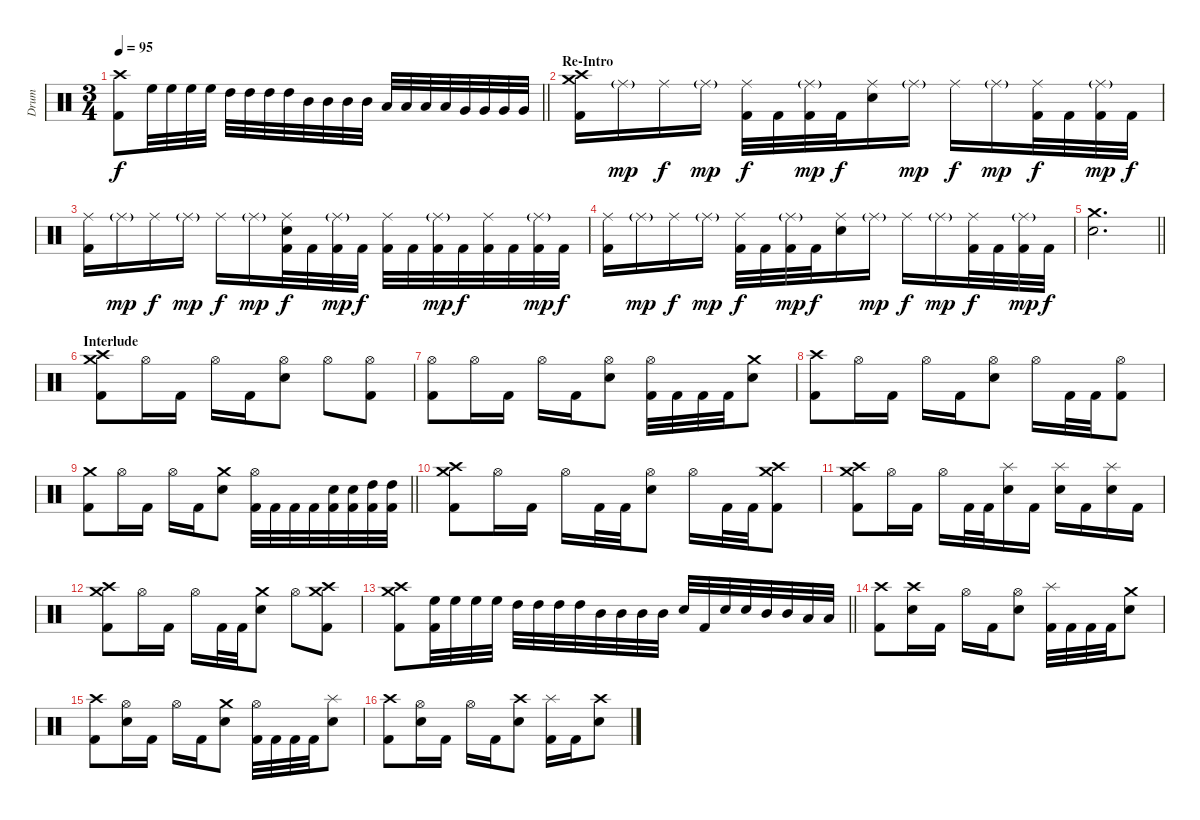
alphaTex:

\track ("Drum" "Drum") {instrument percussion}
\staff {score}
\articulation defaults
\ts (3 4)
\tempo 95
\clef neutral
\barLineRight lightlight
\ks c
("Crash high (hit)" "Kick (hit) 2").8{dy f} "High Floor Tom (hit)".32 "High Floor Tom (hit)".32 "High Floor Tom (hit)".32 "High Floor Tom (hit)".32 "High Tom (hit)".32 "High Tom (hit)".32 "High Tom (hit)".32 "High Tom (hit)".32 "Mid Tom (hit)".32 "Mid Tom (hit)".32 "Mid Tom (hit)".32 "Mid Tom (hit)".32 "Low Tom (hit)".32 "Low Tom (hit)".32 "Low Tom (hit)".32 "Low Tom (hit)".32 "Very Low Tom (hit)".32 "Very Low Tom (hit)".32 "Very Low Tom (hit)".32 "Very Low Tom (hit)".32 |
\section ("" "Re-Intro")
("Crash high (hit)" "Crash medium (hit)" "Kick (hit) 2").16 "Ride (middle)"{g}.16{dy mp} "Ride (middle)".16{dy f} "Ride (middle)"{g}.16{dy mp} ("Ride (middle)" "Kick (hit) 2").32{dy f} "Kick (hit) 2".32 ("Ride (middle)"{g} "Kick (hit) 2").32{dy mp} "Kick (hit) 2".32{dy f} ("Ride (middle)" "Electric Snare (hit)").16 "Ride (middle)"{g}.16{dy mp} "Ride (middle)".16{dy f} "Ride (middle)"{g}.16{dy mp} ("Ride (middle)" "Kick (hit) 2").32{dy f} "Kick (hit) 2".32 ("Ride (middle)"{g} "Kick (hit) 2").32{dy mp} "Kick (hit) 2".32{dy f} |
("Ride (middle)" "Kick (hit) 2").16 "Ride (middle)"{g}.16{dy mp} "Ride (middle)".16{dy f} "Ride (middle)"{g}.16{dy mp} "Ride (middle)".16{dy f} "Ride (middle)"{g}.16{dy mp} ("Ride (middle)" "Electric Snare (hit)" "Kick (hit) 2").32{dy f} "Kick (hit) 2".32 ("Ride (middle)"{g} "Kick (hit) 2").32{dy mp} "Kick (hit) 2".32{dy f} ("Ride (middle)" "Kick (hit) 2").32 "Kick (hit) 2".32 ("Ride (middle)"{g} "Kick (hit) 2").32{dy mp} "Kick (hit) 2".32{dy f} ("Ride (middle)" "Kick (hit) 2").32 "Kick (hit) 2".32 ("Ride (middle)"{g} "Kick (hit) 2").32{dy mp} "Kick (hit) 2".32{dy f} |
("Ride (middle)" "Kick (hit) 2").16 "Ride (middle)"{g}.16{dy mp} "Ride (middle)".16{dy f} "Ride (middle)"{g}.16{dy mp} ("Ride (middle)" "Kick (hit) 2").32{dy f} "Kick (hit) 2".32 ("Ride (middle)"{g} "Kick (hit) 2").32{dy mp} "Kick (hit) 2".32{dy f} ("Ride (middle)" "Electric Snare (hit)").16 "Ride (middle)"{g}.16{dy mp} "Ride (middle)".16{dy f} "Ride (middle)"{g}.16{dy mp} ("Ride (middle)" "Kick (hit) 2").32{dy f} "Kick (hit) 2".32 ("Ride (middle)"{g} "Kick (hit) 2").32{dy mp} "Kick (hit) 2".32{dy f} |
\barLineRight lightlight
("Crash medium (hit)" "Electric Snare (hit)").2{d} |
\section ("" "Interlude")
("Crash high (hit)" "Crash medium (hit)" "Kick (hit) 2").8 "Hi-Hat (open)".16 "Kick (hit) 2".16 "Hi-Hat (open)".16 "Kick (hit) 2".16 ("Hi-Hat (open)" "Electric Snare (hit)").8 "Hi-Hat (open)".8 ("Hi-Hat (open)" "Kick (hit) 2").8 |
("Hi-Hat (open)" "Kick (hit) 2").8 "Hi-Hat (open)".16 "Kick (hit) 2".16 "Hi-Hat (open)".16 "Kick (hit) 2".16 ("Hi-Hat (open)" "Electric Snare (hit)").8 ("Hi-Hat (open)" "Kick (hit) 2").32 "Kick (hit) 2".32 "Kick (hit) 2".32 "Kick (hit) 2".32 ("Crash medium (hit)" "Electric Snare (hit)").8 |
("Crash high (hit)" "Kick (hit) 2").8 "Hi-Hat (open)".16 "Kick (hit) 2".16 "Hi-Hat (open)".16 "Kick (hit) 2".16 ("Hi-Hat (open)" "Electric Snare (hit)").8 "Hi-Hat (open)".16 "Kick (hit) 2".32 "Kick (hit) 2".32 ("Hi-Hat (open)" "Kick (hit) 2").8 |
\barLineRight lightlight
("Crash medium (hit)" "Kick (hit) 2").8 "Hi-Hat (open)".16 "Kick (hit) 2".16 "Hi-Hat (open)".16 "Kick (hit) 2".16 ("Crash medium (hit)" "Electric Snare (hit)").8 ("Hi-Hat (open)" "Kick (hit) 2").32 "Kick (hit) 2".32 "Kick (hit) 2".32 "Kick (hit) 2".32 ("Electric Snare (hit)" "Kick (hit) 2").32 ("Electric Snare (hit)" "Kick (hit) 2").32 ("High Tom (hit)" "Kick (hit) 2").32 ("High Tom (hit)" "Kick (hit) 2").32 |
("Crash high (hit)" "Crash medium (hit)" "Kick (hit) 2").8 "Hi-Hat (open)".16 "Kick (hit) 2".16 "Hi-Hat (open)".16 "Kick (hit) 2".32 "Kick (hit) 2".32 ("Hi-Hat (open)" "Electric Snare (hit)").8 "Hi-Hat (open)".16 "Kick (hit) 2".32 "Kick (hit) 2".32 ("Crash high (hit)" "Crash medium (hit)" "Kick (hit) 2").8 |
("Crash high (hit)" "Crash medium (hit)" "Kick (hit) 2").8 "Hi-Hat (open)".16 "Kick (hit) 2".16 "Hi-Hat (open)".16 "Kick (hit) 2".32 "Kick (hit) 2".32 ("Splash (hit)" "Electric Snare (hit)").16 "Kick (hit) 2".16 ("Splash (hit)" "Electric Snare (hit)").16 "Kick (hit) 2".16 ("Splash (hit)" "Electric Snare (hit)").16 "Kick (hit) 2".16 |
("Crash high (hit)" "Crash medium (hit)" "Kick (hit) 2").8 "Hi-Hat (open)".16 "Kick (hit) 2".16 "Hi-Hat (open)".16 "Kick (hit) 2".32 "Kick (hit) 2".32 ("Crash medium (hit)" "Electric Snare (hit)").8 "Hi-Hat (open)".8 ("Crash high (hit)" "Crash medium (hit)" "Kick (hit) 2").8 |
\barLineRight lightlight
("Crash high (hit)" "Crash medium (hit)" "Kick (hit) 2").8 ("High Floor Tom (hit)" "Kick (hit) 2").32 "High Floor Tom (hit)".32 "High Floor Tom (hit)".32 "High Floor Tom (hit)".32 "High Tom (hit)".32 "High Tom (hit)".32 "High Tom (hit)".32 "High Tom (hit)".32 "Mid Tom (hit)".32 "Mid Tom (hit)".32 "Mid Tom (hit)".32 "Mid Tom (hit)".32 "Electric Snare (hit)".32 "Kick (hit) 2".32 "Electric Snare (hit)".32 "Electric Snare (hit)".32 "Mid Tom (hit)".32 "Mid Tom (hit)".32 "Low Tom (hit)".32 "Low Tom (hit)".32 |
("Crash high (hit)" "Kick (hit) 2").8 ("Crash high (hit)" "Electric Snare (hit)").16 "Kick (hit) 2".16 "Hi-Hat (open)".16 "Kick (hit) 2".16 ("Hi-Hat (open)" "Electric Snare (hit)").8 ("Splash (hit)" "Kick (hit) 2").32 "Kick (hit) 2".32 "Kick (hit) 2".32 "Kick (hit) 2".32 ("Crash medium (hit)" "Electric Snare (hit)").8 |
("Crash high (hit)" "Kick (hit) 2").8 ("Hi-Hat (open)" "Electric Snare (hit)").16 "Kick (hit) 2".16 "Hi-Hat (open)".16 "Kick (hit) 2".16 ("Crash medium (hit)" "Electric Snare (hit)").8 ("Hi-Hat (open)" "Kick (hit) 2").32 "Kick (hit) 2".32 "Kick (hit) 2".32 "Kick (hit) 2".32 ("Splash (hit)" "Electric Snare (hit)").8 |
("Crash high (hit)" "Kick (hit) 2").8 ("Hi-Hat (open)" "Electric Snare (hit)").16 "Kick (hit) 2".16 "Hi-Hat (open)".16 "Kick (hit) 2".16 ("Crash high (hit)" "Electric Snare (hit)").8 ("Splash (hit)" "Kick (hit) 2").16 "Kick (hit) 2".16 ("Crash high (hit)" "Electric Snare (hit)").8
